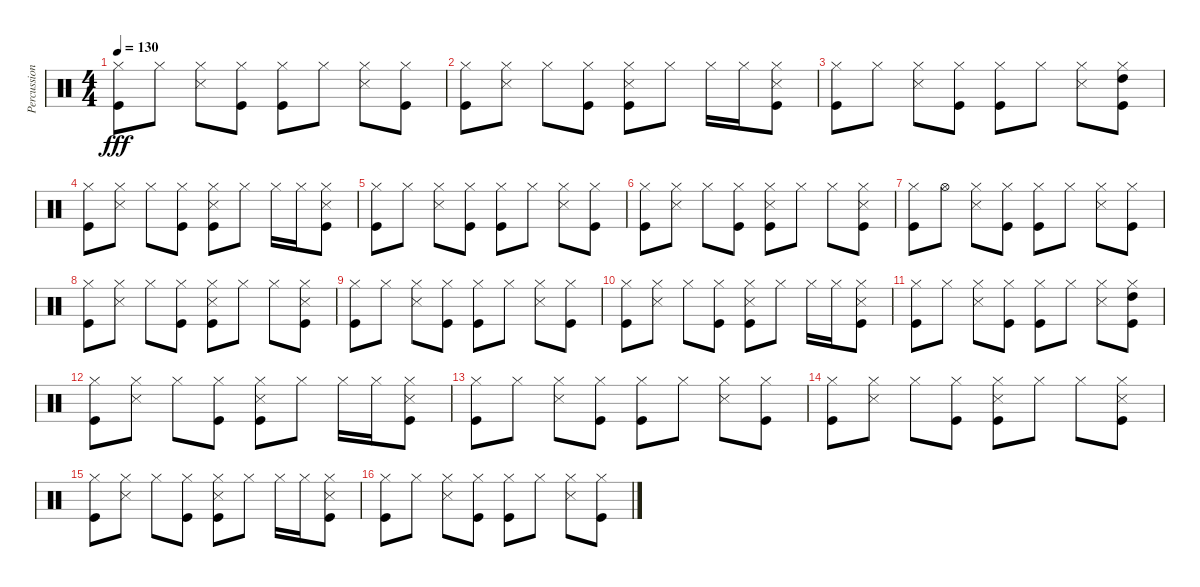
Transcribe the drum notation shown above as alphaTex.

\track ("Percussions 2" "Percussion") {instrument percussion}
\staff {score}
\articulation defaults
\ts (4 4)
\tempo 130
\clef neutral
\ks c
("Kick (hit)" "Hi-Hat (closed)").8{dy fff} "Hi-Hat (closed)".8 ("Snare (side stick) 3" "Hi-Hat (closed)").8 ("Kick (hit)" "Hi-Hat (closed)").8 ("Kick (hit)" "Hi-Hat (closed)").8 "Hi-Hat (closed)".8 ("Snare (side stick) 3" "Hi-Hat (closed)").8 ("Kick (hit)" "Hi-Hat (closed)").8 |
("Kick (hit)" "Hi-Hat (closed)").8 ("Snare (side stick) 3" "Hi-Hat (closed)").8 "Hi-Hat (closed)".8 ("Kick (hit)" "Hi-Hat (closed)").8 ("Kick (hit)" "Snare (side stick) 3" "Hi-Hat (closed)").8 "Hi-Hat (closed)".8 "Hi-Hat (closed)".16 "Hi-Hat (closed)".16 ("Kick (hit)" "Snare (side stick) 3" "Hi-Hat (closed)").8 |
("Kick (hit)" "Hi-Hat (closed)").8 "Hi-Hat (closed)".8 ("Snare (side stick) 3" "Hi-Hat (closed)").8 ("Kick (hit)" "Hi-Hat (closed)").8 ("Kick (hit)" "Hi-Hat (closed)").8 "Hi-Hat (closed)".8 ("Snare (side stick) 3" "Hi-Hat (closed)").8 ("Kick (hit)" "Hi-Hat (closed)" "High Tom (hit)").8 |
("Kick (hit)" "Hi-Hat (closed)").8 ("Snare (side stick) 3" "Hi-Hat (closed)").8 "Hi-Hat (closed)".8 ("Kick (hit)" "Hi-Hat (closed)").8 ("Kick (hit)" "Snare (side stick) 3" "Hi-Hat (closed)").8 "Hi-Hat (closed)".8 "Hi-Hat (closed)".16 "Hi-Hat (closed)".16 ("Kick (hit)" "Snare (side stick) 3" "Hi-Hat (closed)").8 |
("Kick (hit)" "Hi-Hat (closed)").8 "Hi-Hat (closed)".8 ("Snare (side stick) 3" "Hi-Hat (closed)").8 ("Kick (hit)" "Hi-Hat (closed)").8 ("Kick (hit)" "Hi-Hat (closed)").8 "Hi-Hat (closed)".8 ("Snare (side stick) 3" "Hi-Hat (closed)").8 ("Kick (hit)" "Hi-Hat (closed)").8 |
("Kick (hit)" "Hi-Hat (closed)").8 ("Snare (side stick) 3" "Hi-Hat (closed)").8 "Hi-Hat (closed)".8 ("Kick (hit)" "Hi-Hat (closed)").8 ("Kick (hit)" "Snare (side stick) 3" "Hi-Hat (closed)").8 "Hi-Hat (closed)".8 "Hi-Hat (closed)".8 ("Kick (hit)" "Snare (side stick) 3" "Hi-Hat (closed)").8 |
("Kick (hit)" "Hi-Hat (closed)").8 "Hi-Hat (open)".8 ("Snare (side stick) 3" "Hi-Hat (closed)").8 ("Kick (hit)" "Hi-Hat (closed)").8 ("Kick (hit)" "Hi-Hat (closed)").8 "Hi-Hat (closed)".8 ("Snare (side stick) 3" "Hi-Hat (closed)").8 ("Kick (hit)" "Hi-Hat (closed)").8 |
("Kick (hit)" "Hi-Hat (closed)").8 ("Snare (side stick) 3" "Hi-Hat (closed)").8 "Hi-Hat (closed)".8 ("Kick (hit)" "Hi-Hat (closed)").8 ("Kick (hit)" "Snare (side stick) 3" "Hi-Hat (closed)").8 "Hi-Hat (closed)".8 "Hi-Hat (closed)".8 ("Kick (hit)" "Snare (side stick) 3" "Hi-Hat (closed)").8 |
("Kick (hit)" "Hi-Hat (closed)").8 "Hi-Hat (closed)".8 ("Snare (side stick) 3" "Hi-Hat (closed)").8 ("Kick (hit)" "Hi-Hat (closed)").8 ("Kick (hit)" "Hi-Hat (closed)").8 "Hi-Hat (closed)".8 ("Snare (side stick) 3" "Hi-Hat (closed)").8 ("Kick (hit)" "Hi-Hat (closed)").8 |
("Kick (hit)" "Hi-Hat (closed)").8 ("Snare (side stick) 3" "Hi-Hat (closed)").8 "Hi-Hat (closed)".8 ("Kick (hit)" "Hi-Hat (closed)").8 ("Kick (hit)" "Snare (side stick) 3" "Hi-Hat (closed)").8 "Hi-Hat (closed)".8 "Hi-Hat (closed)".16 "Hi-Hat (closed)".16 ("Kick (hit)" "Snare (side stick) 3" "Hi-Hat (closed)").8 |
("Kick (hit)" "Hi-Hat (closed)").8 "Hi-Hat (closed)".8 ("Snare (side stick) 3" "Hi-Hat (closed)").8 ("Kick (hit)" "Hi-Hat (closed)").8 ("Kick (hit)" "Hi-Hat (closed)").8 "Hi-Hat (closed)".8 ("Snare (side stick) 3" "Hi-Hat (closed)").8 ("Kick (hit)" "Hi-Hat (closed)" "High Tom (hit)").8 |
("Kick (hit)" "Hi-Hat (closed)").8 ("Snare (side stick) 3" "Hi-Hat (closed)").8 "Hi-Hat (closed)".8 ("Kick (hit)" "Hi-Hat (closed)").8 ("Kick (hit)" "Snare (side stick) 3" "Hi-Hat (closed)").8 "Hi-Hat (closed)".8 "Hi-Hat (closed)".16 "Hi-Hat (closed)".16 ("Kick (hit)" "Snare (side stick) 3" "Hi-Hat (closed)").8 |
("Kick (hit)" "Hi-Hat (closed)").8 "Hi-Hat (closed)".8 ("Snare (side stick) 3" "Hi-Hat (closed)").8 ("Kick (hit)" "Hi-Hat (closed)").8 ("Kick (hit)" "Hi-Hat (closed)").8 "Hi-Hat (closed)".8 ("Snare (side stick) 3" "Hi-Hat (closed)").8 ("Kick (hit)" "Hi-Hat (closed)").8 |
("Kick (hit)" "Hi-Hat (closed)").8 ("Snare (side stick) 3" "Hi-Hat (closed)").8 "Hi-Hat (closed)".8 ("Kick (hit)" "Hi-Hat (closed)").8 ("Kick (hit)" "Snare (side stick) 3" "Hi-Hat (closed)").8 "Hi-Hat (closed)".8 "Hi-Hat (closed)".8 ("Kick (hit)" "Snare (side stick) 3" "Hi-Hat (closed)").8 |
("Kick (hit)" "Hi-Hat (closed)").8 ("Snare (side stick) 3" "Hi-Hat (closed)").8 "Hi-Hat (closed)".8 ("Kick (hit)" "Hi-Hat (closed)").8 ("Kick (hit)" "Snare (side stick) 3" "Hi-Hat (closed)").8 "Hi-Hat (closed)".8 "Hi-Hat (closed)".16 "Hi-Hat (closed)".16 ("Kick (hit)" "Snare (side stick) 3" "Hi-Hat (closed)").8 |
("Kick (hit)" "Hi-Hat (closed)").8 "Hi-Hat (closed)".8 ("Snare (side stick) 3" "Hi-Hat (closed)").8 ("Kick (hit)" "Hi-Hat (closed)").8 ("Kick (hit)" "Hi-Hat (closed)").8 "Hi-Hat (closed)".8 ("Snare (side stick) 3" "Hi-Hat (closed)").8 ("Kick (hit)" "Hi-Hat (closed)").8
